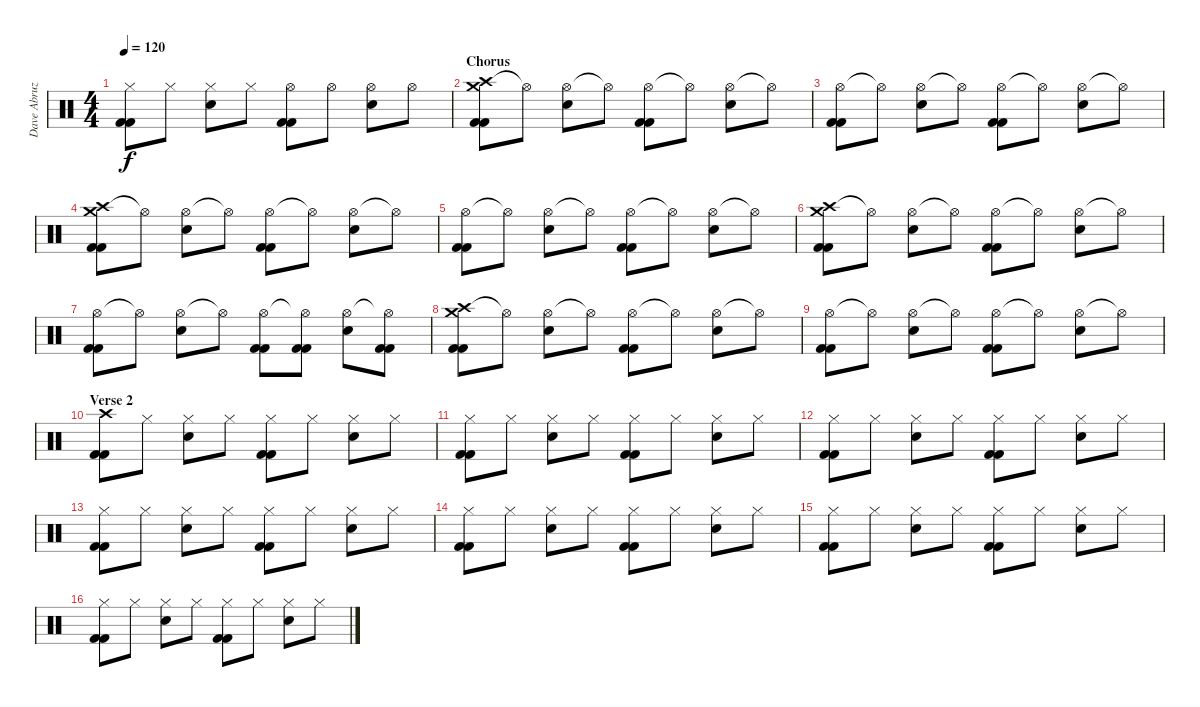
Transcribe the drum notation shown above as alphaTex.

\track ("Dave Abruzzese" "Dave Abruz") {instrument percussion}
\staff {score}
\articulation defaults
\ts (4 4)
\tempo 120
\clef neutral
\ks c
("Hi-Hat (closed)" "Kick (hit) 2" "Kick (hit) 2").8{dy f} "Hi-Hat (closed)".8 ("Hi-Hat (closed)" "Electric Snare (hit)").8 "Hi-Hat (closed)".8 ("Hi-Hat (open)" "Kick (hit) 2" "Kick (hit) 2").8 "Hi-Hat (open)".8 ("Hi-Hat (open)" "Electric Snare (hit)").8 "Hi-Hat (open)".8 |
\section ("" "Chorus")
("Crash high (hit)" "Crash medium (hit)" "Kick (hit) 2" "Kick (hit) 2").8 "Hi-Hat (open)"{t}.8 ("Hi-Hat (open)" "Electric Snare (hit)").8 "Hi-Hat (open)"{t}.8 ("Hi-Hat (open)" "Kick (hit) 2" "Kick (hit) 2").8 "Hi-Hat (open)"{t}.8 ("Hi-Hat (open)" "Electric Snare (hit)").8 "Hi-Hat (open)"{t}.8 |
("Hi-Hat (open)" "Kick (hit) 2" "Kick (hit) 2").8 "Hi-Hat (open)"{t}.8 ("Hi-Hat (open)" "Electric Snare (hit)").8 "Hi-Hat (open)"{t}.8 ("Hi-Hat (open)" "Kick (hit) 2" "Kick (hit) 2").8 "Hi-Hat (open)"{t}.8 ("Hi-Hat (open)" "Electric Snare (hit)").8 "Hi-Hat (open)"{t}.8 |
("Crash high (hit)" "Crash medium (hit)" "Kick (hit) 2" "Kick (hit) 2").8 "Hi-Hat (open)"{t}.8 ("Hi-Hat (open)" "Electric Snare (hit)").8 "Hi-Hat (open)"{t}.8 ("Hi-Hat (open)" "Kick (hit) 2" "Kick (hit) 2").8 "Hi-Hat (open)"{t}.8 ("Hi-Hat (open)" "Electric Snare (hit)").8 "Hi-Hat (open)"{t}.8 |
("Hi-Hat (open)" "Kick (hit) 2" "Kick (hit) 2").8 "Hi-Hat (open)"{t}.8 ("Hi-Hat (open)" "Electric Snare (hit)").8 "Hi-Hat (open)"{t}.8 ("Hi-Hat (open)" "Kick (hit) 2" "Kick (hit) 2").8 "Hi-Hat (open)"{t}.8 ("Hi-Hat (open)" "Electric Snare (hit)").8 "Hi-Hat (open)"{t}.8 |
("Crash high (hit)" "Crash medium (hit)" "Kick (hit) 2" "Kick (hit) 2").8 "Hi-Hat (open)"{t}.8 ("Hi-Hat (open)" "Electric Snare (hit)").8 "Hi-Hat (open)"{t}.8 ("Hi-Hat (open)" "Kick (hit) 2" "Kick (hit) 2").8 "Hi-Hat (open)"{t}.8 ("Hi-Hat (open)" "Electric Snare (hit)").8 "Hi-Hat (open)"{t}.8 |
("Hi-Hat (open)" "Kick (hit) 2" "Kick (hit) 2").8 "Hi-Hat (open)"{t}.8 ("Hi-Hat (open)" "Electric Snare (hit)").8 "Hi-Hat (open)"{t}.8 ("Hi-Hat (open)" "Kick (hit) 2" "Kick (hit) 2").8 ("Hi-Hat (open)"{t} "Kick (hit) 2" "Kick (hit) 2").8 ("Hi-Hat (open)" "Electric Snare (hit)").8 ("Hi-Hat (open)"{t} "Kick (hit) 2" "Kick (hit) 2").8 |
("Crash high (hit)" "Crash medium (hit)" "Kick (hit) 2" "Kick (hit) 2").8 "Hi-Hat (open)"{t}.8 ("Hi-Hat (open)" "Electric Snare (hit)").8 "Hi-Hat (open)"{t}.8 ("Hi-Hat (open)" "Kick (hit) 2" "Kick (hit) 2").8 "Hi-Hat (open)"{t}.8 ("Hi-Hat (open)" "Electric Snare (hit)").8 "Hi-Hat (open)"{t}.8 |
("Hi-Hat (open)" "Kick (hit) 2" "Kick (hit) 2").8 "Hi-Hat (open)"{t}.8 ("Hi-Hat (open)" "Electric Snare (hit)").8 "Hi-Hat (open)"{t}.8 ("Hi-Hat (open)" "Kick (hit) 2" "Kick (hit) 2").8 "Hi-Hat (open)"{t}.8 ("Hi-Hat (open)" "Electric Snare (hit)").8 "Hi-Hat (open)"{t}.8 |
\section ("" "Verse 2")
("Crash high (hit)" "Kick (hit) 2" "Kick (hit) 2").8 "Hi-Hat (closed)".8 ("Hi-Hat (closed)" "Electric Snare (hit)").8 "Hi-Hat (closed)".8 ("Hi-Hat (closed)" "Kick (hit) 2" "Kick (hit) 2").8 "Hi-Hat (closed)".8 ("Hi-Hat (closed)" "Electric Snare (hit)").8 "Hi-Hat (closed)".8 |
("Hi-Hat (closed)" "Kick (hit) 2" "Kick (hit) 2").8 "Hi-Hat (closed)".8 ("Hi-Hat (closed)" "Electric Snare (hit)").8 "Hi-Hat (closed)".8 ("Hi-Hat (closed)" "Kick (hit) 2" "Kick (hit) 2").8 "Hi-Hat (closed)".8 ("Hi-Hat (closed)" "Electric Snare (hit)").8 "Hi-Hat (closed)".8 |
("Hi-Hat (closed)" "Kick (hit) 2" "Kick (hit) 2").8 "Hi-Hat (closed)".8 ("Hi-Hat (closed)" "Electric Snare (hit)").8 "Hi-Hat (closed)".8 ("Hi-Hat (closed)" "Kick (hit) 2" "Kick (hit) 2").8 "Hi-Hat (closed)".8 ("Hi-Hat (closed)" "Electric Snare (hit)").8 "Hi-Hat (closed)".8 |
("Hi-Hat (closed)" "Kick (hit) 2" "Kick (hit) 2").8 "Hi-Hat (closed)".8 ("Hi-Hat (closed)" "Electric Snare (hit)").8 "Hi-Hat (closed)".8 ("Hi-Hat (closed)" "Kick (hit) 2" "Kick (hit) 2").8 "Hi-Hat (closed)".8 ("Hi-Hat (closed)" "Electric Snare (hit)").8 "Hi-Hat (closed)".8 |
("Hi-Hat (closed)" "Kick (hit) 2" "Kick (hit) 2").8 "Hi-Hat (closed)".8 ("Hi-Hat (closed)" "Electric Snare (hit)").8 "Hi-Hat (closed)".8 ("Hi-Hat (closed)" "Kick (hit) 2" "Kick (hit) 2").8 "Hi-Hat (closed)".8 ("Hi-Hat (closed)" "Electric Snare (hit)").8 "Hi-Hat (closed)".8 |
("Hi-Hat (closed)" "Kick (hit) 2" "Kick (hit) 2").8 "Hi-Hat (closed)".8 ("Hi-Hat (closed)" "Electric Snare (hit)").8 "Hi-Hat (closed)".8 ("Hi-Hat (closed)" "Kick (hit) 2" "Kick (hit) 2").8 "Hi-Hat (closed)".8 ("Hi-Hat (closed)" "Electric Snare (hit)").8 "Hi-Hat (closed)".8 |
("Hi-Hat (closed)" "Kick (hit) 2" "Kick (hit) 2").8 "Hi-Hat (closed)".8 ("Hi-Hat (closed)" "Electric Snare (hit)").8 "Hi-Hat (closed)".8 ("Hi-Hat (closed)" "Kick (hit) 2" "Kick (hit) 2").8 "Hi-Hat (closed)".8 ("Hi-Hat (closed)" "Electric Snare (hit)").8 "Hi-Hat (closed)".8
